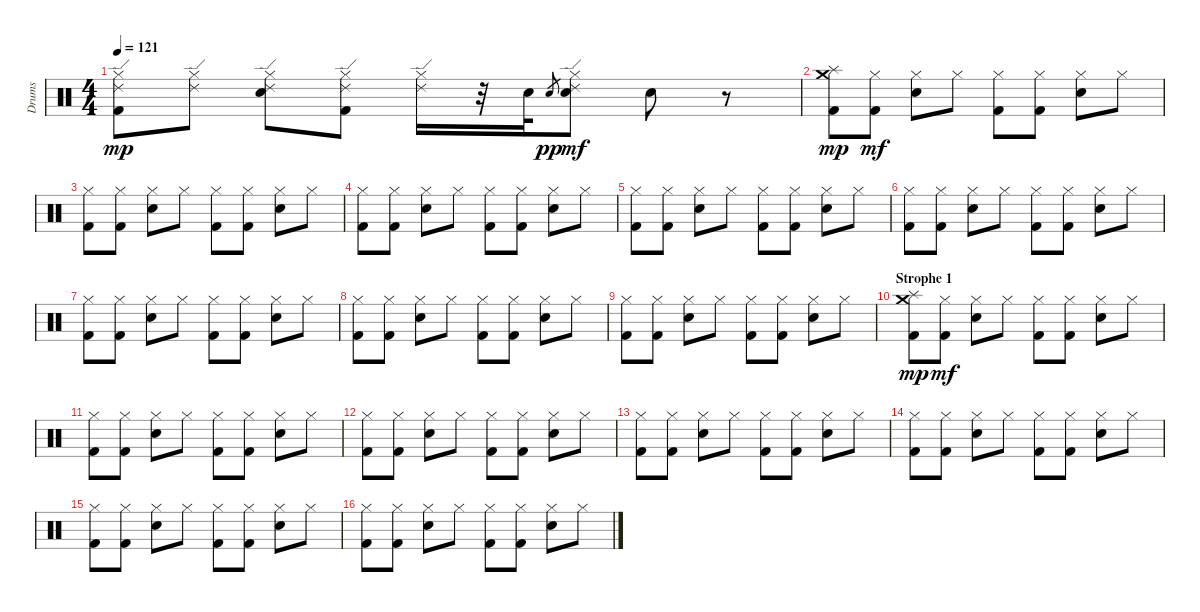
\track ("Drums" "Drums") {instrument percussion}
\staff {score}
\articulation defaults
\ts (4 4)
\tempo 121
\clef neutral
\ks c
("Hi-Hat (closed)" "Ride (edge) 2" "Kick (hit) 2").8{dy mp} ("Hi-Hat (closed)" "Ride (edge) 2").8 ("Hi-Hat (closed)" "Ride (edge) 2" "Electric Snare (hit)").8 ("Hi-Hat (closed)" "Ride (edge) 2" "Kick (hit) 2").8 ("Hi-Hat (closed)" "Ride (edge) 2").16 r.32 "Electric Snare (hit)".32 "Electric Snare (hit)".8{gr dy pp} ("Hi-Hat (closed)" "Ride (edge) 2" "Electric Snare (hit)").8{dy mf} "Electric Snare (hit)".8 r.8 |
("Crash medium (hit)" "Splash (hit)" "Kick (hit) 2").8{dy mp} ("Hi-Hat (closed)" "Kick (hit) 2").8{dy mf} ("Hi-Hat (closed)" "Electric Snare (hit)").8 "Hi-Hat (closed)".8 ("Hi-Hat (closed)" "Kick (hit) 2").8 ("Hi-Hat (closed)" "Kick (hit) 2").8 ("Hi-Hat (closed)" "Electric Snare (hit)").8 "Hi-Hat (closed)".8 |
("Hi-Hat (closed)" "Kick (hit) 2").8 ("Hi-Hat (closed)" "Kick (hit) 2").8 ("Hi-Hat (closed)" "Electric Snare (hit)").8 "Hi-Hat (closed)".8 ("Hi-Hat (closed)" "Kick (hit) 2").8 ("Hi-Hat (closed)" "Kick (hit) 2").8 ("Hi-Hat (closed)" "Electric Snare (hit)").8 "Hi-Hat (closed)".8 |
("Hi-Hat (closed)" "Kick (hit) 2").8 ("Hi-Hat (closed)" "Kick (hit) 2").8 ("Hi-Hat (closed)" "Electric Snare (hit)").8 "Hi-Hat (closed)".8 ("Hi-Hat (closed)" "Kick (hit) 2").8 ("Hi-Hat (closed)" "Kick (hit) 2").8 ("Hi-Hat (closed)" "Electric Snare (hit)").8 "Hi-Hat (closed)".8 |
("Hi-Hat (closed)" "Kick (hit) 2").8 ("Hi-Hat (closed)" "Kick (hit) 2").8 ("Hi-Hat (closed)" "Electric Snare (hit)").8 "Hi-Hat (closed)".8 ("Hi-Hat (closed)" "Kick (hit) 2").8 ("Hi-Hat (closed)" "Kick (hit) 2").8 ("Hi-Hat (closed)" "Electric Snare (hit)").8 "Hi-Hat (closed)".8 |
("Hi-Hat (closed)" "Kick (hit) 2").8 ("Hi-Hat (closed)" "Kick (hit) 2").8 ("Hi-Hat (closed)" "Electric Snare (hit)").8 "Hi-Hat (closed)".8 ("Hi-Hat (closed)" "Kick (hit) 2").8 ("Hi-Hat (closed)" "Kick (hit) 2").8 ("Hi-Hat (closed)" "Electric Snare (hit)").8 "Hi-Hat (closed)".8 |
("Hi-Hat (closed)" "Kick (hit) 2").8 ("Hi-Hat (closed)" "Kick (hit) 2").8 ("Hi-Hat (closed)" "Electric Snare (hit)").8 "Hi-Hat (closed)".8 ("Hi-Hat (closed)" "Kick (hit) 2").8 ("Hi-Hat (closed)" "Kick (hit) 2").8 ("Hi-Hat (closed)" "Electric Snare (hit)").8 "Hi-Hat (closed)".8 |
("Hi-Hat (closed)" "Kick (hit) 2").8 ("Hi-Hat (closed)" "Kick (hit) 2").8 ("Hi-Hat (closed)" "Electric Snare (hit)").8 "Hi-Hat (closed)".8 ("Hi-Hat (closed)" "Kick (hit) 2").8 ("Hi-Hat (closed)" "Kick (hit) 2").8 ("Hi-Hat (closed)" "Electric Snare (hit)").8 "Hi-Hat (closed)".8 |
("Hi-Hat (closed)" "Kick (hit) 2").8 ("Hi-Hat (closed)" "Kick (hit) 2").8 ("Hi-Hat (closed)" "Electric Snare (hit)").8 "Hi-Hat (closed)".8 ("Hi-Hat (closed)" "Kick (hit) 2").8 ("Hi-Hat (closed)" "Kick (hit) 2").8 ("Hi-Hat (closed)" "Electric Snare (hit)").8 "Hi-Hat (closed)".8 |
\section ("" "Strophe 1")
("Crash medium (hit)" "Splash (hit)" "Kick (hit) 2").8{dy mp} ("Hi-Hat (closed)" "Kick (hit) 2").8{dy mf} ("Hi-Hat (closed)" "Electric Snare (hit)").8 "Hi-Hat (closed)".8 ("Hi-Hat (closed)" "Kick (hit) 2").8 ("Hi-Hat (closed)" "Kick (hit) 2").8 ("Hi-Hat (closed)" "Electric Snare (hit)").8 "Hi-Hat (closed)".8 |
("Hi-Hat (closed)" "Kick (hit) 2").8 ("Hi-Hat (closed)" "Kick (hit) 2").8 ("Hi-Hat (closed)" "Electric Snare (hit)").8 "Hi-Hat (closed)".8 ("Hi-Hat (closed)" "Kick (hit) 2").8 ("Hi-Hat (closed)" "Kick (hit) 2").8 ("Hi-Hat (closed)" "Electric Snare (hit)").8 "Hi-Hat (closed)".8 |
("Hi-Hat (closed)" "Kick (hit) 2").8 ("Hi-Hat (closed)" "Kick (hit) 2").8 ("Hi-Hat (closed)" "Electric Snare (hit)").8 "Hi-Hat (closed)".8 ("Hi-Hat (closed)" "Kick (hit) 2").8 ("Hi-Hat (closed)" "Kick (hit) 2").8 ("Hi-Hat (closed)" "Electric Snare (hit)").8 "Hi-Hat (closed)".8 |
("Hi-Hat (closed)" "Kick (hit) 2").8 ("Hi-Hat (closed)" "Kick (hit) 2").8 ("Hi-Hat (closed)" "Electric Snare (hit)").8 "Hi-Hat (closed)".8 ("Hi-Hat (closed)" "Kick (hit) 2").8 ("Hi-Hat (closed)" "Kick (hit) 2").8 ("Hi-Hat (closed)" "Electric Snare (hit)").8 "Hi-Hat (closed)".8 |
("Hi-Hat (closed)" "Kick (hit) 2").8 ("Hi-Hat (closed)" "Kick (hit) 2").8 ("Hi-Hat (closed)" "Electric Snare (hit)").8 "Hi-Hat (closed)".8 ("Hi-Hat (closed)" "Kick (hit) 2").8 ("Hi-Hat (closed)" "Kick (hit) 2").8 ("Hi-Hat (closed)" "Electric Snare (hit)").8 "Hi-Hat (closed)".8 |
("Hi-Hat (closed)" "Kick (hit) 2").8 ("Hi-Hat (closed)" "Kick (hit) 2").8 ("Hi-Hat (closed)" "Electric Snare (hit)").8 "Hi-Hat (closed)".8 ("Hi-Hat (closed)" "Kick (hit) 2").8 ("Hi-Hat (closed)" "Kick (hit) 2").8 ("Hi-Hat (closed)" "Electric Snare (hit)").8 "Hi-Hat (closed)".8 |
("Hi-Hat (closed)" "Kick (hit) 2").8 ("Hi-Hat (closed)" "Kick (hit) 2").8 ("Hi-Hat (closed)" "Electric Snare (hit)").8 "Hi-Hat (closed)".8 ("Hi-Hat (closed)" "Kick (hit) 2").8 ("Hi-Hat (closed)" "Kick (hit) 2").8 ("Hi-Hat (closed)" "Electric Snare (hit)").8 "Hi-Hat (closed)".8
